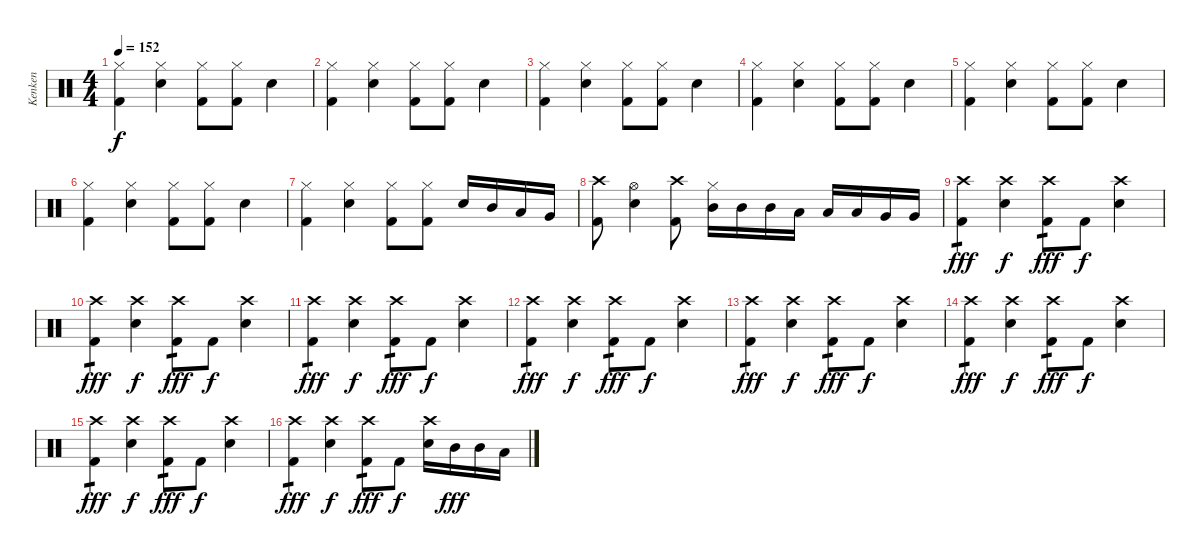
\track ("Kenken" "Kenken") {instrument percussion}
\staff {score}
\articulation defaults
\ts (4 4)
\tempo 152
\clef neutral
\ks c
("Hi-Hat (closed)" "Kick (hit) 2").4{dy f} ("Hi-Hat (closed)" "Electric Snare (hit)").4 ("Hi-Hat (closed)" "Kick (hit) 2").8 ("Hi-Hat (closed)" "Kick (hit) 2").8 "Electric Snare (hit)".4 |
("Hi-Hat (closed)" "Kick (hit) 2").4 ("Hi-Hat (closed)" "Electric Snare (hit)").4 ("Hi-Hat (closed)" "Kick (hit) 2").8 ("Hi-Hat (closed)" "Kick (hit) 2").8 "Electric Snare (hit)".4 |
("Hi-Hat (closed)" "Kick (hit) 2").4 ("Hi-Hat (closed)" "Electric Snare (hit)").4 ("Hi-Hat (closed)" "Kick (hit) 2").8 ("Hi-Hat (closed)" "Kick (hit) 2").8 "Electric Snare (hit)".4 |
("Hi-Hat (closed)" "Kick (hit) 2").4 ("Hi-Hat (closed)" "Electric Snare (hit)").4 ("Hi-Hat (closed)" "Kick (hit) 2").8 ("Hi-Hat (closed)" "Kick (hit) 2").8 "Electric Snare (hit)".4 |
("Hi-Hat (closed)" "Kick (hit) 2").4 ("Hi-Hat (closed)" "Electric Snare (hit)").4 ("Hi-Hat (closed)" "Kick (hit) 2").8 ("Hi-Hat (closed)" "Kick (hit) 2").8 "Electric Snare (hit)".4 |
("Hi-Hat (closed)" "Kick (hit) 2").4 ("Hi-Hat (closed)" "Electric Snare (hit)").4 ("Hi-Hat (closed)" "Kick (hit) 2").8 ("Hi-Hat (closed)" "Kick (hit) 2").8 "Electric Snare (hit)".4 |
("Hi-Hat (closed)" "Kick (hit) 2").4 ("Hi-Hat (closed)" "Electric Snare (hit)").4 ("Hi-Hat (closed)" "Kick (hit) 2").8 ("Hi-Hat (closed)" "Kick (hit) 2").8 "Electric Snare (hit)".16 "Mid Tom (hit)".16 "Low Tom (hit)".16 "Very Low Tom (hit)".16 |
("Crash high (hit)" "Kick (hit) 2").8 ("Hi-Hat (open)" "Electric Snare (hit)").4 ("Crash high (hit)" "Kick (hit) 2").8 ("Hi-Hat (closed)" "Mid Tom (hit)").16 "Mid Tom (hit)".16 "Mid Tom (hit)".16 "Low Tom (hit)".16 "Low Tom (hit)".16 "Low Tom (hit)".16 "Very Low Tom (hit)".16 "Very Low Tom (hit)".16 |
("Crash high (hit)" "Kick (hit) 2").4{tp 1 dy fff} ("Crash high (hit)" "Electric Snare (hit)").4{dy f} ("Crash high (hit)" "Kick (hit) 2").8{tp 1 dy fff} "Kick (hit) 2".8{dy f} ("Crash high (hit)" "Electric Snare (hit)").4 |
("Crash high (hit)" "Kick (hit) 2").4{tp 1 dy fff} ("Crash high (hit)" "Electric Snare (hit)").4{dy f} ("Crash high (hit)" "Kick (hit) 2").8{tp 1 dy fff} "Kick (hit) 2".8{dy f} ("Crash high (hit)" "Electric Snare (hit)").4 |
("Crash high (hit)" "Kick (hit) 2").4{tp 1 dy fff} ("Crash high (hit)" "Electric Snare (hit)").4{dy f} ("Crash high (hit)" "Kick (hit) 2").8{tp 1 dy fff} "Kick (hit) 2".8{dy f} ("Crash high (hit)" "Electric Snare (hit)").4 |
("Crash high (hit)" "Kick (hit) 2").4{tp 1 dy fff} ("Crash high (hit)" "Electric Snare (hit)").4{dy f} ("Crash high (hit)" "Kick (hit) 2").8{tp 1 dy fff} "Kick (hit) 2".8{dy f} ("Crash high (hit)" "Electric Snare (hit)").4 |
("Crash high (hit)" "Kick (hit) 2").4{tp 1 dy fff} ("Crash high (hit)" "Electric Snare (hit)").4{dy f} ("Crash high (hit)" "Kick (hit) 2").8{tp 1 dy fff} "Kick (hit) 2".8{dy f} ("Crash high (hit)" "Electric Snare (hit)").4 |
("Crash high (hit)" "Kick (hit) 2").4{tp 1 dy fff} ("Crash high (hit)" "Electric Snare (hit)").4{dy f} ("Crash high (hit)" "Kick (hit) 2").8{tp 1 dy fff} "Kick (hit) 2".8{dy f} ("Crash high (hit)" "Electric Snare (hit)").4 |
("Crash high (hit)" "Kick (hit) 2").4{tp 1 dy fff} ("Crash high (hit)" "Electric Snare (hit)").4{dy f} ("Crash high (hit)" "Kick (hit) 2").8{tp 1 dy fff} "Kick (hit) 2".8{dy f} ("Crash high (hit)" "Electric Snare (hit)").4 |
("Crash high (hit)" "Kick (hit) 2").4{tp 1 dy fff} ("Crash high (hit)" "Electric Snare (hit)").4{dy f} ("Crash high (hit)" "Kick (hit) 2").8{tp 1 dy fff} "Kick (hit) 2".8{dy f} ("Crash high (hit)" "Electric Snare (hit)").16 "Mid Tom (hit)".16{dy fff} "Mid Tom (hit)".16 "Low Tom (hit)".16
